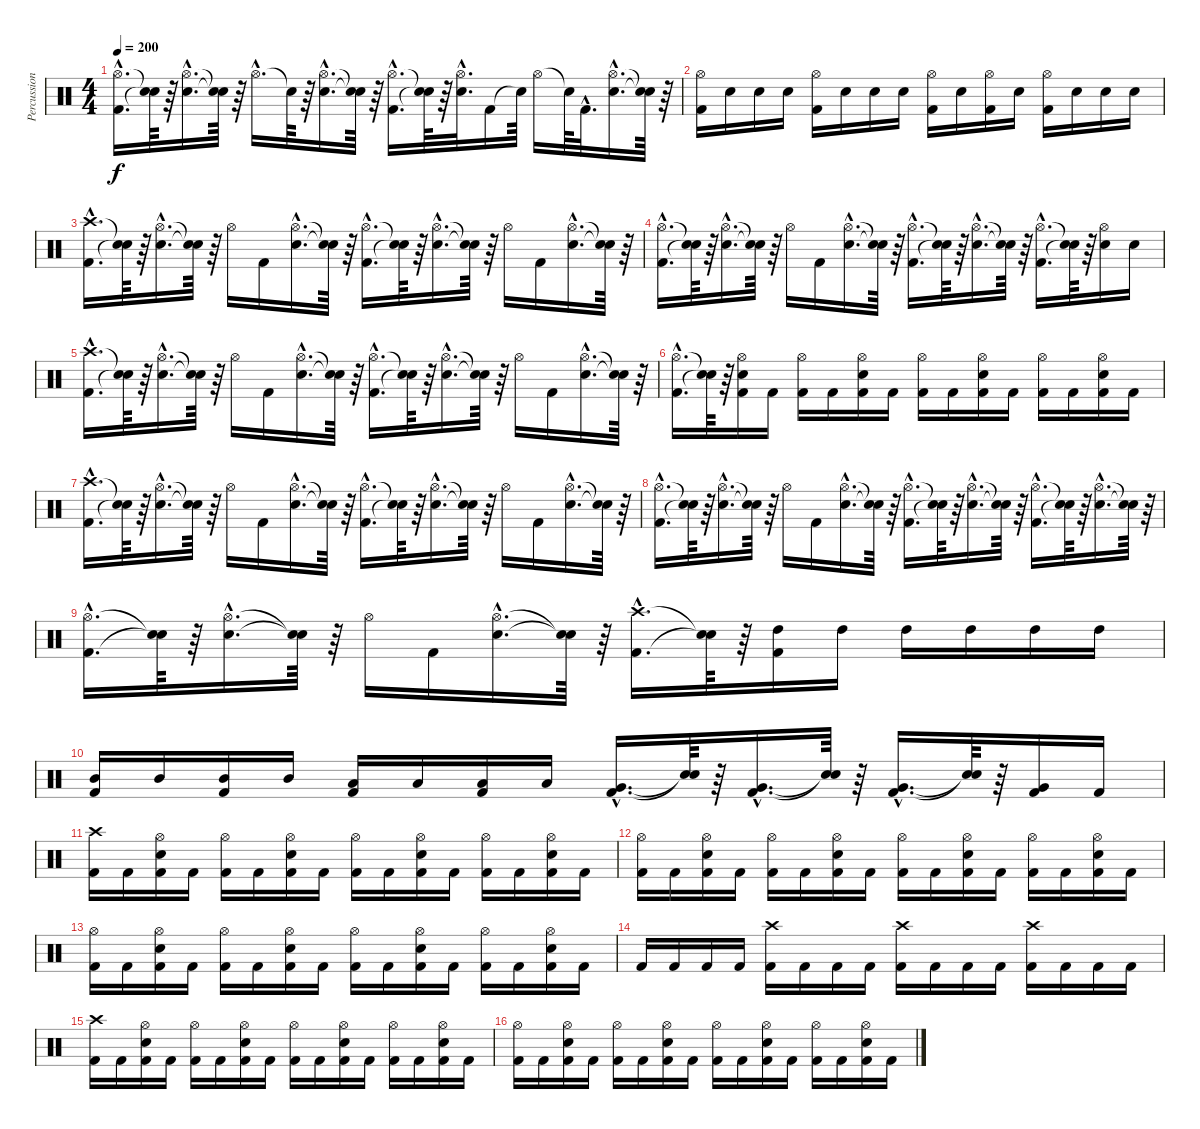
\track ("Percussion" "Percussion") {instrument percussion}
\staff {score}
\articulation defaults
\ts (4 4)
\tempo 200
\clef neutral
\ks c
("Hi-Hat (open)"{hac} "Kick (hit) 2"{hac}).16{d dy f} ("Snare (hit)"{t} "Snare (hit)"{t}).64 r.64 ("Electric Snare (hit)"{hac} "Hi-Hat (open)"{hac}).16{d} ("Snare (hit)"{t} "Snare (hit)"{t}).64 r.64 "Hi-Hat (open)"{hac}.16{d} "Snare (hit)"{t}.64 r.64 ("Electric Snare (hit)"{hac} "Hi-Hat (open)"{hac}).16{d} ("Snare (hit)"{t} "Snare (hit)"{t}).64 r.64 ("Hi-Hat (open)"{hac} "Kick (hit) 2"{hac}).16{d} ("Snare (hit)"{t} "Snare (hit)"{t}).64 r.64 ("Electric Snare (hit)"{hac} "Hi-Hat (open)"{hac}).32{d} "Kick (hit) 2".16 "Snare (hit)"{t}.64 "Hi-Hat (open)".16 "Snare (hit)"{t}.64 "Kick (hit) 2"{hac}.32{d} ("Electric Snare (hit)"{hac} "Hi-Hat (open)"{hac}).16{d} ("Snare (hit)"{t} "Snare (hit)"{t}).64 r.64 |
("Kick (hit) 2" "Hi-Hat (open)").16 "Electric Snare (hit)".16 "Electric Snare (hit)".16 "Electric Snare (hit)".16 ("Kick (hit) 2" "Hi-Hat (open)").16 "Electric Snare (hit)".16 "Electric Snare (hit)".16 "Electric Snare (hit)".16 ("Hi-Hat (open)" "Kick (hit) 2").16 "Electric Snare (hit)".16 ("Hi-Hat (open)" "Kick (hit) 2").16 "Electric Snare (hit)".16 ("Kick (hit) 2" "Hi-Hat (open)").16 "Electric Snare (hit)".16 "Electric Snare (hit)".16 "Electric Snare (hit)".16 |
("Crash high (hit)"{hac} "Kick (hit) 2"{hac}).16{d} ("Snare (hit)"{t} "Snare (hit)"{t}).64 r.64 ("Electric Snare (hit)"{hac} "Hi-Hat (open)"{hac}).16{d} ("Snare (hit)"{t} "Snare (hit)"{t}).64 r.64 "Hi-Hat (open)".16 "Kick (hit) 2".16 ("Electric Snare (hit)"{hac} "Hi-Hat (open)"{hac}).16{d} ("Snare (hit)"{t} "Snare (hit)"{t}).64 r.64 ("Hi-Hat (open)"{hac} "Kick (hit) 2"{hac}).16{d} ("Snare (hit)"{t} "Snare (hit)"{t}).64 r.64 ("Electric Snare (hit)"{hac} "Hi-Hat (open)"{hac}).16{d} ("Snare (hit)"{t} "Snare (hit)"{t}).64 r.64 "Hi-Hat (open)".16 "Kick (hit) 2".16 ("Electric Snare (hit)"{hac} "Hi-Hat (open)"{hac}).16{d} ("Snare (hit)"{t} "Snare (hit)"{t}).64 r.64 |
("Hi-Hat (open)"{hac} "Kick (hit) 2"{hac}).16{d} ("Snare (hit)"{t} "Snare (hit)"{t}).64 r.64 ("Electric Snare (hit)"{hac} "Hi-Hat (open)"{hac}).16{d} ("Snare (hit)"{t} "Snare (hit)"{t}).64 r.64 "Hi-Hat (open)".16 "Kick (hit) 2".16 ("Electric Snare (hit)"{hac} "Hi-Hat (open)"{hac}).16{d} ("Snare (hit)"{t} "Snare (hit)"{t}).64 r.64 ("Hi-Hat (open)"{hac} "Kick (hit) 2"{hac}).16{d} ("Snare (hit)"{t} "Snare (hit)"{t}).64 r.64 ("Electric Snare (hit)"{hac} "Hi-Hat (open)"{hac}).16{d} ("Snare (hit)"{t} "Snare (hit)"{t}).64 r.64 ("Hi-Hat (open)"{hac} "Kick (hit) 2"{hac}).16{d} ("Snare (hit)"{t} "Snare (hit)"{t}).64 r.64 ("Hi-Hat (open)" "Electric Snare (hit)").16 "Electric Snare (hit)".16 |
("Crash high (hit)"{hac} "Kick (hit) 2"{hac}).16{d} ("Snare (hit)"{t} "Snare (hit)"{t}).64 r.64 ("Electric Snare (hit)"{hac} "Hi-Hat (open)"{hac}).16{d} ("Snare (hit)"{t} "Snare (hit)"{t}).64 r.64 "Hi-Hat (open)".16 "Kick (hit) 2".16 ("Electric Snare (hit)"{hac} "Hi-Hat (open)"{hac}).16{d} ("Snare (hit)"{t} "Snare (hit)"{t}).64 r.64 ("Hi-Hat (open)"{hac} "Kick (hit) 2"{hac}).16{d} ("Snare (hit)"{t} "Snare (hit)"{t}).64 r.64 ("Electric Snare (hit)"{hac} "Hi-Hat (open)"{hac}).16{d} ("Snare (hit)"{t} "Snare (hit)"{t}).64 r.64 "Hi-Hat (open)".16 "Kick (hit) 2".16 ("Electric Snare (hit)"{hac} "Hi-Hat (open)"{hac}).16{d} ("Snare (hit)"{t} "Snare (hit)"{t}).64 r.64 |
("Hi-Hat (open)"{hac} "Kick (hit) 2"{hac}).16{d} ("Snare (hit)"{t} "Snare (hit)"{t}).64 r.64 ("Electric Snare (hit)" "Hi-Hat (open)" "Kick (hit) 2").16 "Kick (hit) 2".16 ("Hi-Hat (open)" "Kick (hit) 2").16 "Kick (hit) 2".16 ("Electric Snare (hit)" "Hi-Hat (open)" "Kick (hit) 2").16 "Kick (hit) 2".16 ("Hi-Hat (open)" "Kick (hit) 2").16 "Kick (hit) 2".16 ("Electric Snare (hit)" "Hi-Hat (open)" "Kick (hit) 2").16 "Kick (hit) 2".16 ("Hi-Hat (open)" "Kick (hit) 2").16 "Kick (hit) 2".16 ("Electric Snare (hit)" "Hi-Hat (open)" "Kick (hit) 2").16 "Kick (hit) 2".16 |
("Crash high (hit)"{hac} "Kick (hit) 2"{hac}).16{d} ("Snare (hit)"{t} "Snare (hit)"{t}).64 r.64 ("Electric Snare (hit)"{hac} "Hi-Hat (open)"{hac}).16{d} ("Snare (hit)"{t} "Snare (hit)"{t}).64 r.64 "Hi-Hat (open)".16 "Kick (hit) 2".16 ("Electric Snare (hit)"{hac} "Hi-Hat (open)"{hac}).16{d} ("Snare (hit)"{t} "Snare (hit)"{t}).64 r.64 ("Hi-Hat (open)"{hac} "Kick (hit) 2"{hac}).16{d} ("Snare (hit)"{t} "Snare (hit)"{t}).64 r.64 ("Electric Snare (hit)"{hac} "Hi-Hat (open)"{hac}).16{d} ("Snare (hit)"{t} "Snare (hit)"{t}).64 r.64 "Hi-Hat (open)".16 "Kick (hit) 2".16 ("Electric Snare (hit)"{hac} "Hi-Hat (open)"{hac}).16{d} ("Snare (hit)"{t} "Snare (hit)"{t}).64 r.64 |
("Hi-Hat (open)"{hac} "Kick (hit) 2"{hac}).16{d} ("Snare (hit)"{t} "Snare (hit)"{t}).64 r.64 ("Electric Snare (hit)"{hac} "Hi-Hat (open)"{hac}).16{d} ("Snare (hit)"{t} "Snare (hit)"{t}).64 r.64 "Hi-Hat (open)".16 "Kick (hit) 2".16 ("Electric Snare (hit)"{hac} "Hi-Hat (open)"{hac}).16{d} ("Snare (hit)"{t} "Snare (hit)"{t}).64 r.64 ("Hi-Hat (open)"{hac} "Kick (hit) 2"{hac}).16{d} ("Snare (hit)"{t} "Snare (hit)"{t}).64 r.64 ("Electric Snare (hit)"{hac} "Hi-Hat (open)"{hac}).16{d} ("Snare (hit)"{t} "Snare (hit)"{t}).64 r.64 ("Hi-Hat (open)"{hac} "Kick (hit) 2"{hac}).16{d} ("Snare (hit)"{t} "Snare (hit)"{t}).64 r.64 ("Electric Snare (hit)"{hac} "Hi-Hat (open)"{hac}).16{d} ("Snare (hit)"{t} "Snare (hit)"{t}).64 r.64 |
("Hi-Hat (open)"{hac} "Kick (hit) 2"{hac}).16{d} ("Snare (hit)"{t} "Snare (hit)"{t}).64 r.64 ("Electric Snare (hit)"{hac} "Hi-Hat (open)"{hac}).16{d} ("Snare (hit)"{t} "Snare (hit)"{t}).64 r.64 "Hi-Hat (open)".16 "Kick (hit) 2".16 ("Electric Snare (hit)"{hac} "Hi-Hat (open)"{hac}).16{d} ("Snare (hit)"{t} "Snare (hit)"{t}).64 r.64 ("Kick (hit) 2"{hac} "Crash high (hit)"{hac}).16{d} ("Snare (hit)"{t} "Snare (hit)"{t}).64 r.64 ("Kick (hit) 2" "High Tom (hit)").16 "High Tom (hit)".16 "High Tom (hit)".16 "High Tom (hit)".16 "High Tom (hit)".16 "High Tom (hit)".16 |
("Mid Tom (hit)" "Kick (hit) 2").16 "Mid Tom (hit)".16 ("Mid Tom (hit)" "Kick (hit) 2").16 "Mid Tom (hit)".16 ("Low Tom (hit)" "Kick (hit) 2").16 "Low Tom (hit)".16 ("Low Tom (hit)" "Kick (hit) 2").16 "Low Tom (hit)".16 ("Very Low Tom (hit)"{hac} "Kick (hit) 2"{hac}).16{d} ("Snare (hit)"{t} "Snare (hit)"{t}).64 r.64 ("Very Low Tom (hit)"{hac} "Kick (hit) 2"{hac}).16{d} ("Snare (hit)"{t} "Snare (hit)"{t}).64 r.64 ("Very Low Tom (hit)"{hac} "Kick (hit) 2"{hac}).16{d} ("Snare (hit)"{t} "Snare (hit)"{t}).64 r.64 ("Very Low Tom (hit)" "Kick (hit) 2").16 "Kick (hit) 2".16 |
("Kick (hit) 2" "Crash high (hit)").16 "Kick (hit) 2".16 ("Kick (hit) 2" "Electric Snare (hit)" "Hi-Hat (open)").16 "Kick (hit) 2".16 ("Kick (hit) 2" "Hi-Hat (open)").16 "Kick (hit) 2".16 ("Kick (hit) 2" "Electric Snare (hit)" "Hi-Hat (open)").16 "Kick (hit) 2".16 ("Kick (hit) 2" "Hi-Hat (open)").16 "Kick (hit) 2".16 ("Kick (hit) 2" "Electric Snare (hit)" "Hi-Hat (open)").16 "Kick (hit) 2".16 ("Kick (hit) 2" "Hi-Hat (open)").16 "Kick (hit) 2".16 ("Kick (hit) 2" "Electric Snare (hit)" "Hi-Hat (open)").16 "Kick (hit) 2".16 |
("Kick (hit) 2" "Hi-Hat (open)").16 "Kick (hit) 2".16 ("Kick (hit) 2" "Electric Snare (hit)" "Hi-Hat (open)").16 "Kick (hit) 2".16 ("Kick (hit) 2" "Hi-Hat (open)").16 "Kick (hit) 2".16 ("Kick (hit) 2" "Electric Snare (hit)" "Hi-Hat (open)").16 "Kick (hit) 2".16 ("Kick (hit) 2" "Hi-Hat (open)").16 "Kick (hit) 2".16 ("Kick (hit) 2" "Electric Snare (hit)" "Hi-Hat (open)").16 "Kick (hit) 2".16 ("Kick (hit) 2" "Hi-Hat (open)").16 "Kick (hit) 2".16 ("Kick (hit) 2" "Electric Snare (hit)" "Hi-Hat (open)").16 "Kick (hit) 2".16 |
("Kick (hit) 2" "Hi-Hat (open)").16 "Kick (hit) 2".16 ("Kick (hit) 2" "Electric Snare (hit)" "Hi-Hat (open)").16 "Kick (hit) 2".16 ("Kick (hit) 2" "Hi-Hat (open)").16 "Kick (hit) 2".16 ("Kick (hit) 2" "Electric Snare (hit)" "Hi-Hat (open)").16 "Kick (hit) 2".16 ("Kick (hit) 2" "Hi-Hat (open)").16 "Kick (hit) 2".16 ("Kick (hit) 2" "Electric Snare (hit)" "Hi-Hat (open)").16 "Kick (hit) 2".16 ("Kick (hit) 2" "Hi-Hat (open)").16 "Kick (hit) 2".16 ("Kick (hit) 2" "Electric Snare (hit)" "Hi-Hat (open)").16 "Kick (hit) 2".16 |
"Kick (hit) 2".16 "Kick (hit) 2".16 "Kick (hit) 2".16 "Kick (hit) 2".16 ("Kick (hit) 2" "Crash high (hit)").16 "Kick (hit) 2".16 "Kick (hit) 2".16 "Kick (hit) 2".16 ("Kick (hit) 2" "Crash high (hit)").16 "Kick (hit) 2".16 "Kick (hit) 2".16 "Kick (hit) 2".16 ("Kick (hit) 2" "Crash high (hit)").16 "Kick (hit) 2".16 "Kick (hit) 2".16 "Kick (hit) 2".16 |
("Kick (hit) 2" "Crash high (hit)").16 "Kick (hit) 2".16 ("Kick (hit) 2" "Electric Snare (hit)" "Hi-Hat (open)").16 "Kick (hit) 2".16 ("Kick (hit) 2" "Hi-Hat (open)").16 "Kick (hit) 2".16 ("Kick (hit) 2" "Electric Snare (hit)" "Hi-Hat (open)").16 "Kick (hit) 2".16 ("Kick (hit) 2" "Hi-Hat (open)").16 "Kick (hit) 2".16 ("Kick (hit) 2" "Electric Snare (hit)" "Hi-Hat (open)").16 "Kick (hit) 2".16 ("Kick (hit) 2" "Hi-Hat (open)").16 "Kick (hit) 2".16 ("Kick (hit) 2" "Electric Snare (hit)" "Hi-Hat (open)").16 "Kick (hit) 2".16 |
("Kick (hit) 2" "Hi-Hat (open)").16 "Kick (hit) 2".16 ("Kick (hit) 2" "Electric Snare (hit)" "Hi-Hat (open)").16 "Kick (hit) 2".16 ("Kick (hit) 2" "Hi-Hat (open)").16 "Kick (hit) 2".16 ("Kick (hit) 2" "Electric Snare (hit)" "Hi-Hat (open)").16 "Kick (hit) 2".16 ("Kick (hit) 2" "Hi-Hat (open)").16 "Kick (hit) 2".16 ("Kick (hit) 2" "Electric Snare (hit)" "Hi-Hat (open)").16 "Kick (hit) 2".16 ("Kick (hit) 2" "Hi-Hat (open)").16 "Kick (hit) 2".16 ("Kick (hit) 2" "Electric Snare (hit)" "Hi-Hat (open)").16 "Kick (hit) 2".16
